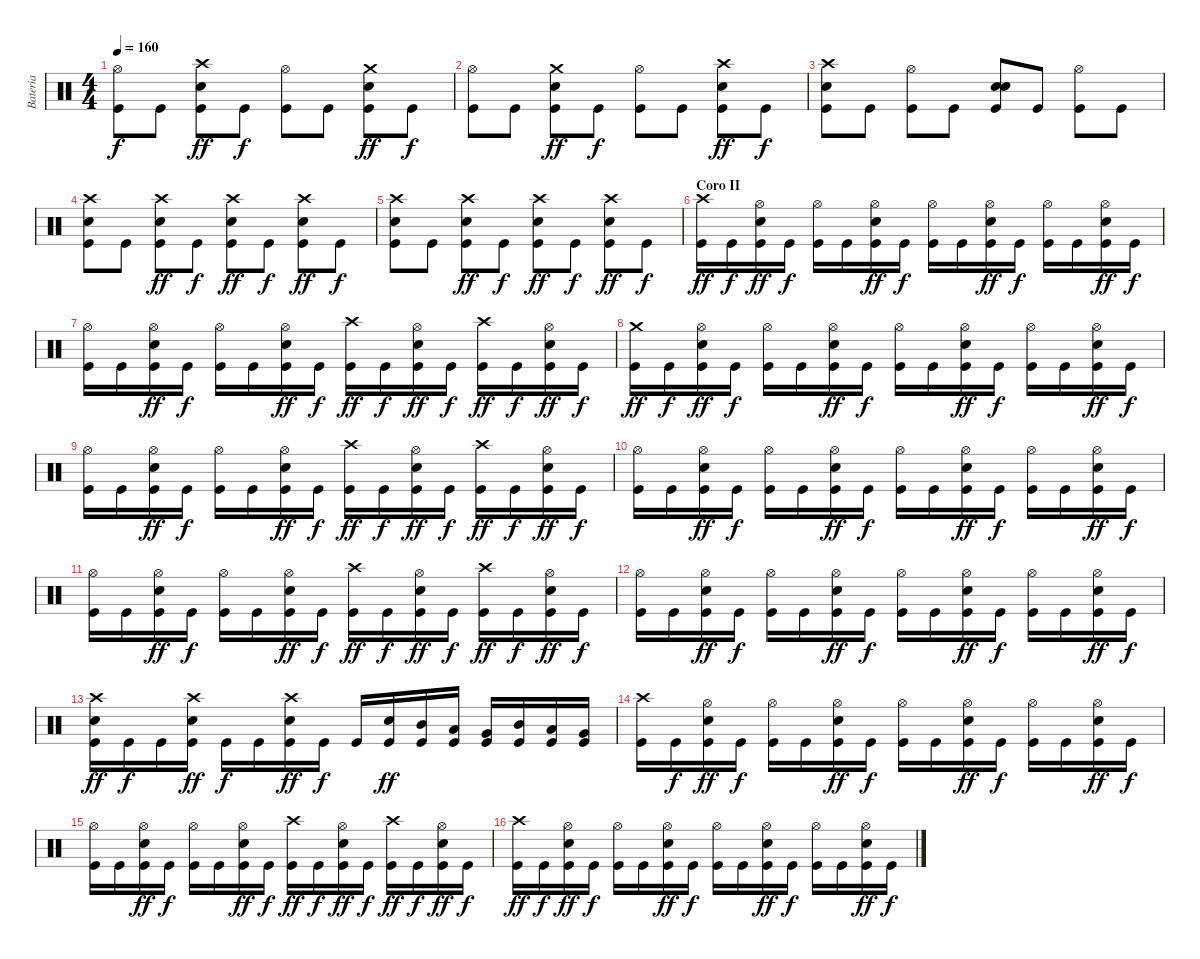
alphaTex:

\track ("Bateria" "Bateria") {instrument percussion}
\staff {score}
\articulation defaults
\ts (4 4)
\tempo 160
\clef neutral
\ks c
("Kick (hit)" "Hi-Hat (open)").8{dy f} "Kick (hit)".8 ("Kick (hit)" "Electric Snare (hit)" "Crash high (hit)").8{dy ff} "Kick (hit)".8{dy f} ("Kick (hit)" "Hi-Hat (open)").8 "Kick (hit)".8 ("Kick (hit)" "Electric Snare (hit)" "Crash medium (hit)").8{dy ff} "Kick (hit)".8{dy f} |
("Kick (hit)" "Hi-Hat (open)").8 "Kick (hit)".8 ("Kick (hit)" "Electric Snare (hit)" "Crash medium (hit)").8{dy ff} "Kick (hit)".8{dy f} ("Kick (hit)" "Hi-Hat (open)").8 "Kick (hit)".8 ("Kick (hit)" "Electric Snare (hit)" "Crash high (hit)").8{dy ff} "Kick (hit)".8{dy f} |
("Kick (hit)" "Electric Snare (hit)" "Crash high (hit)").8 "Kick (hit)".8 ("Kick (hit)" "Hi-Hat (open)").8 "Kick (hit)".8 ("Kick (hit)" "Electric Snare (hit)" "Snare (hit)").8 "Kick (hit)".8 ("Kick (hit)" "Hi-Hat (open)").8 "Kick (hit)".8 |
("Kick (hit)" "Electric Snare (hit)" "Crash high (hit)").8 "Kick (hit)".8 ("Kick (hit)" "Electric Snare (hit)" "Crash high (hit)").8{dy ff} "Kick (hit)".8{dy f} ("Kick (hit)" "Electric Snare (hit)" "Crash high (hit)").8{dy ff} "Kick (hit)".8{dy f} ("Kick (hit)" "Electric Snare (hit)" "Crash high (hit)").8{dy ff} "Kick (hit)".8{dy f} |
("Kick (hit)" "Electric Snare (hit)" "Crash high (hit)").8 "Kick (hit)".8 ("Kick (hit)" "Electric Snare (hit)" "Crash high (hit)").8{dy ff} "Kick (hit)".8{dy f} ("Kick (hit)" "Electric Snare (hit)" "Crash high (hit)").8{dy ff} "Kick (hit)".8{dy f} ("Kick (hit)" "Electric Snare (hit)" "Crash high (hit)").8{dy ff} "Kick (hit)".8{dy f} |
\section ("" "Coro II")
("Kick (hit)" "Crash high (hit)").16{dy ff} "Kick (hit)".16{dy f} ("Kick (hit)" "Electric Snare (hit)" "Hi-Hat (open)").16{dy ff} "Kick (hit)".16{dy f} ("Kick (hit)" "Hi-Hat (open)").16 "Kick (hit)".16 ("Kick (hit)" "Electric Snare (hit)" "Hi-Hat (open)").16{dy ff} "Kick (hit)".16{dy f} ("Kick (hit)" "Hi-Hat (open)").16 "Kick (hit)".16 ("Kick (hit)" "Electric Snare (hit)" "Hi-Hat (open)").16{dy ff} "Kick (hit)".16{dy f} ("Kick (hit)" "Hi-Hat (open)").16 "Kick (hit)".16 ("Kick (hit)" "Electric Snare (hit)" "Hi-Hat (open)").16{dy ff} "Kick (hit)".16{dy f} |
("Kick (hit)" "Hi-Hat (open)").16 "Kick (hit)".16 ("Kick (hit)" "Electric Snare (hit)" "Hi-Hat (open)").16{dy ff} "Kick (hit)".16{dy f} ("Kick (hit)" "Hi-Hat (open)").16 "Kick (hit)".16 ("Kick (hit)" "Electric Snare (hit)" "Hi-Hat (open)").16{dy ff} "Kick (hit)".16{dy f} ("Kick (hit)" "Crash high (hit)").16{dy ff} "Kick (hit)".16{dy f} ("Kick (hit)" "Electric Snare (hit)" "Hi-Hat (open)").16{dy ff} "Kick (hit)".16{dy f} ("Kick (hit)" "Crash high (hit)").16{dy ff} "Kick (hit)".16{dy f} ("Kick (hit)" "Electric Snare (hit)" "Hi-Hat (open)").16{dy ff} "Kick (hit)".16{dy f} |
("Kick (hit)" "Crash medium (hit)").16{dy ff} "Kick (hit)".16{dy f} ("Kick (hit)" "Electric Snare (hit)" "Hi-Hat (open)").16{dy ff} "Kick (hit)".16{dy f} ("Kick (hit)" "Hi-Hat (open)").16 "Kick (hit)".16 ("Kick (hit)" "Electric Snare (hit)" "Hi-Hat (open)").16{dy ff} "Kick (hit)".16{dy f} ("Kick (hit)" "Hi-Hat (open)").16 "Kick (hit)".16 ("Kick (hit)" "Electric Snare (hit)" "Hi-Hat (open)").16{dy ff} "Kick (hit)".16{dy f} ("Kick (hit)" "Hi-Hat (open)").16 "Kick (hit)".16 ("Kick (hit)" "Electric Snare (hit)" "Hi-Hat (open)").16{dy ff} "Kick (hit)".16{dy f} |
("Kick (hit)" "Hi-Hat (open)").16 "Kick (hit)".16 ("Kick (hit)" "Electric Snare (hit)" "Hi-Hat (open)").16{dy ff} "Kick (hit)".16{dy f} ("Kick (hit)" "Hi-Hat (open)").16 "Kick (hit)".16 ("Kick (hit)" "Electric Snare (hit)" "Hi-Hat (open)").16{dy ff} "Kick (hit)".16{dy f} ("Kick (hit)" "Crash high (hit)").16{dy ff} "Kick (hit)".16{dy f} ("Kick (hit)" "Electric Snare (hit)" "Hi-Hat (open)").16{dy ff} "Kick (hit)".16{dy f} ("Kick (hit)" "Crash high (hit)").16{dy ff} "Kick (hit)".16{dy f} ("Kick (hit)" "Electric Snare (hit)" "Hi-Hat (open)").16{dy ff} "Kick (hit)".16{dy f} |
("Kick (hit)" "Hi-Hat (open)").16 "Kick (hit)".16 ("Kick (hit)" "Electric Snare (hit)" "Hi-Hat (open)").16{dy ff} "Kick (hit)".16{dy f} ("Kick (hit)" "Hi-Hat (open)").16 "Kick (hit)".16 ("Kick (hit)" "Electric Snare (hit)" "Hi-Hat (open)").16{dy ff} "Kick (hit)".16{dy f} ("Kick (hit)" "Hi-Hat (open)").16 "Kick (hit)".16 ("Kick (hit)" "Electric Snare (hit)" "Hi-Hat (open)").16{dy ff} "Kick (hit)".16{dy f} ("Kick (hit)" "Hi-Hat (open)").16 "Kick (hit)".16 ("Kick (hit)" "Electric Snare (hit)" "Hi-Hat (open)").16{dy ff} "Kick (hit)".16{dy f} |
("Kick (hit)" "Hi-Hat (open)").16 "Kick (hit)".16 ("Kick (hit)" "Electric Snare (hit)" "Hi-Hat (open)").16{dy ff} "Kick (hit)".16{dy f} ("Kick (hit)" "Hi-Hat (open)").16 "Kick (hit)".16 ("Kick (hit)" "Electric Snare (hit)" "Hi-Hat (open)").16{dy ff} "Kick (hit)".16{dy f} ("Kick (hit)" "Crash high (hit)").16{dy ff} "Kick (hit)".16{dy f} ("Kick (hit)" "Electric Snare (hit)" "Hi-Hat (open)").16{dy ff} "Kick (hit)".16{dy f} ("Kick (hit)" "Crash high (hit)").16{dy ff} "Kick (hit)".16{dy f} ("Kick (hit)" "Electric Snare (hit)" "Hi-Hat (open)").16{dy ff} "Kick (hit)".16{dy f} |
("Kick (hit)" "Hi-Hat (open)").16 "Kick (hit)".16 ("Kick (hit)" "Electric Snare (hit)" "Hi-Hat (open)").16{dy ff} "Kick (hit)".16{dy f} ("Kick (hit)" "Hi-Hat (open)").16 "Kick (hit)".16 ("Kick (hit)" "Electric Snare (hit)" "Hi-Hat (open)").16{dy ff} "Kick (hit)".16{dy f} ("Kick (hit)" "Hi-Hat (open)").16 "Kick (hit)".16 ("Kick (hit)" "Electric Snare (hit)" "Hi-Hat (open)").16{dy ff} "Kick (hit)".16{dy f} ("Kick (hit)" "Hi-Hat (open)").16 "Kick (hit)".16 ("Kick (hit)" "Electric Snare (hit)" "Hi-Hat (open)").16{dy ff} "Kick (hit)".16{dy f} |
("Kick (hit)" "Electric Snare (hit)" "Crash high (hit)").16{dy ff} "Kick (hit)".16{dy f} "Kick (hit)".16 ("Kick (hit)" "Electric Snare (hit)" "Crash high (hit)").16{dy ff} "Kick (hit)".16{dy f} "Kick (hit)".16 ("Kick (hit)" "Electric Snare (hit)" "Crash high (hit)").16{dy ff} "Kick (hit)".16{dy f} "Kick (hit)".16 ("Kick (hit)" "Electric Snare (hit)").16{dy ff} ("Kick (hit)" "Mid Tom (hit)").16 ("Kick (hit)" "Low Tom (hit)").16 ("Kick (hit)" "Very Low Tom (hit)").16 ("Kick (hit)" "Mid Tom (hit)").16 ("Kick (hit)" "Low Tom (hit)").16 ("Kick (hit)" "Very Low Tom (hit)").16 |
("Kick (hit)" "Crash high (hit)").16 "Kick (hit)".16{dy f} ("Kick (hit)" "Electric Snare (hit)" "Hi-Hat (open)").16{dy ff} "Kick (hit)".16{dy f} ("Kick (hit)" "Hi-Hat (open)").16 "Kick (hit)".16 ("Kick (hit)" "Electric Snare (hit)" "Hi-Hat (open)").16{dy ff} "Kick (hit)".16{dy f} ("Kick (hit)" "Hi-Hat (open)").16 "Kick (hit)".16 ("Kick (hit)" "Electric Snare (hit)" "Hi-Hat (open)").16{dy ff} "Kick (hit)".16{dy f} ("Kick (hit)" "Hi-Hat (open)").16 "Kick (hit)".16 ("Kick (hit)" "Electric Snare (hit)" "Hi-Hat (open)").16{dy ff} "Kick (hit)".16{dy f} |
("Kick (hit)" "Hi-Hat (open)").16 "Kick (hit)".16 ("Kick (hit)" "Electric Snare (hit)" "Hi-Hat (open)").16{dy ff} "Kick (hit)".16{dy f} ("Kick (hit)" "Hi-Hat (open)").16 "Kick (hit)".16 ("Kick (hit)" "Electric Snare (hit)" "Hi-Hat (open)").16{dy ff} "Kick (hit)".16{dy f} ("Kick (hit)" "Crash high (hit)").16{dy ff} "Kick (hit)".16{dy f} ("Kick (hit)" "Electric Snare (hit)" "Hi-Hat (open)").16{dy ff} "Kick (hit)".16{dy f} ("Kick (hit)" "Crash high (hit)").16{dy ff} "Kick (hit)".16{dy f} ("Kick (hit)" "Electric Snare (hit)" "Hi-Hat (open)").16{dy ff} "Kick (hit)".16{dy f} |
("Kick (hit)" "Crash high (hit)").16{dy ff} "Kick (hit)".16{dy f} ("Kick (hit)" "Electric Snare (hit)" "Hi-Hat (open)").16{dy ff} "Kick (hit)".16{dy f} ("Kick (hit)" "Hi-Hat (open)").16 "Kick (hit)".16 ("Kick (hit)" "Electric Snare (hit)" "Hi-Hat (open)").16{dy ff} "Kick (hit)".16{dy f} ("Kick (hit)" "Hi-Hat (open)").16 "Kick (hit)".16 ("Kick (hit)" "Electric Snare (hit)" "Hi-Hat (open)").16{dy ff} "Kick (hit)".16{dy f} ("Kick (hit)" "Hi-Hat (open)").16 "Kick (hit)".16 ("Kick (hit)" "Electric Snare (hit)" "Hi-Hat (open)").16{dy ff} "Kick (hit)".16{dy f}
